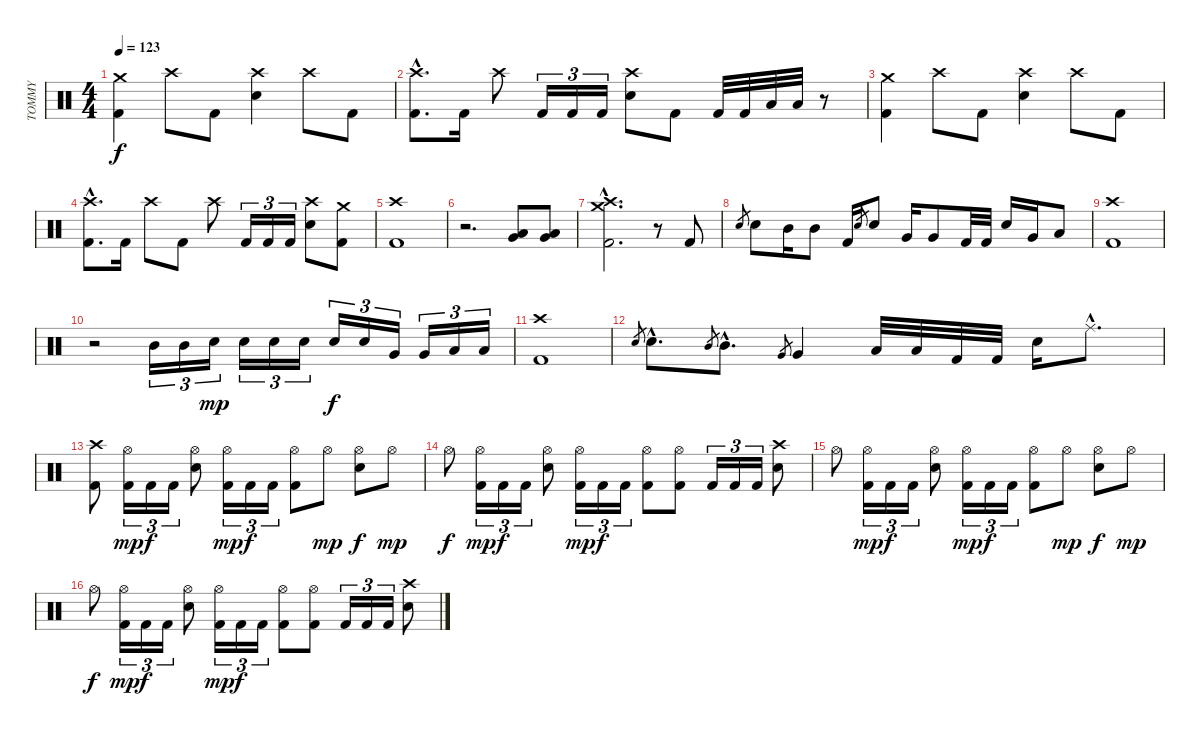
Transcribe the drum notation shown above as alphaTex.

\track ("TOMMY" "TOMMY") {instrument percussion}
\staff {score}
\articulation defaults
\ts (4 4)
\tempo 123
\clef neutral
\ks c
("Kick (hit) 2" "Crash medium (hit)").4{dy f} "Crash high (hit)".8 "Kick (hit) 2".8 ("Snare (hit) 2" "Crash high (hit)").4 "Crash high (hit)".8 "Kick (hit) 2".8 |
("Kick (hit) 2"{hac} "Crash high (hit)"{hac}).8{d} "Kick (hit) 2".16 "Crash high (hit)".8 "Kick (hit) 2".16{tu (3 2)} "Kick (hit) 2".16{tu (3 2)} "Kick (hit) 2".16{tu (3 2)} ("Snare (hit) 2" "Crash high (hit)").8 "Kick (hit) 2".8 "Kick (hit) 2".32 "Kick (hit) 2".32 "Low Floor Tom (hit)".32 "Low Floor Tom (hit)".32 r.8 |
("Kick (hit) 2" "Crash medium (hit)").4 "Crash high (hit)".8 "Kick (hit) 2".8 ("Snare (hit) 2" "Crash high (hit)").4 "Crash high (hit)".8 "Kick (hit) 2".8 |
("Kick (hit) 2"{hac} "Crash high (hit)"{hac}).8{d} "Kick (hit) 2".16 "Crash high (hit)".8 "Kick (hit) 2".8 "Crash high (hit)".8 "Kick (hit) 2".16{tu (3 2)} "Kick (hit) 2".16{tu (3 2)} "Kick (hit) 2".16{tu (3 2)} ("Snare (hit) 2" "Crash high (hit)").8 ("Kick (hit) 2" "Crash medium (hit)").8 |
("Kick (hit) 2" "Crash high (hit)").1 |
r.2{d} ("Very Low Tom (hit)" "Low Floor Tom (hit)").8 ("Very Low Tom (hit)" "Low Floor Tom (hit)").8 |
("Kick (hit) 2"{hac} "Crash high (hit)"{hac} "Crash medium (hit)"{hac}).2{d} r.8 "Kick (hit) 2".8 |
"Snare (hit) 2".8{gr} "Snare (hit) 2".8 "Mid Tom (hit)".16 "Mid Tom (hit)".8 "Kick (hit) 2".16 "Snare (hit) 2".8{gr} "Snare (hit) 2".8 "Very Low Tom (hit)".16 "Very Low Tom (hit)".8 "Kick (hit) 2".32 "Kick (hit) 2".32 "Snare (hit) 2".16 "Very Low Tom (hit)".16 "Low Floor Tom (hit)".8 |
("Kick (hit) 2" "Crash high (hit)").1 |
r.2 "Mid Tom (hit)".16{tu (3 2)} "Mid Tom (hit)".16{tu (3 2)} "Snare (hit) 2".16{tu (3 2) dy mp} "Snare (hit) 2".16{tu (3 2)} "Snare (hit) 2".16{tu (3 2)} "Snare (hit) 2".16{tu (3 2)} "Snare (hit) 2".16{tu (3 2) dy f} "Snare (hit) 2".16{tu (3 2)} "Very Low Tom (hit)".16{tu (3 2)} "Very Low Tom (hit)".16{tu (3 2)} "Low Floor Tom (hit)".16{tu (3 2)} "Low Floor Tom (hit)".16{tu (3 2)} |
("Kick (hit) 2" "Crash high (hit)").1 |
"Snare (hit) 2".8{gr} "Snare (hit) 2"{hac}.8{d} "Mid Tom (hit)".8{gr} "Mid Tom (hit)"{hac}.8{d} "Very Low Tom (hit)".8{gr} "Very Low Tom (hit)".4 "Low Floor Tom (hit)".32 "Low Floor Tom (hit)".32 "Kick (hit) 2".32 "Kick (hit) 2".32 "Snare (hit) 2".16 "Ride (middle)"{hac}.8{d} |
("Kick (hit) 2" "Crash high (hit)").8 ("Kick (hit) 2" "Hi-Hat (open)").16{tu (3 2) dy mp} "Kick (hit) 2".16{tu (3 2) dy f} "Kick (hit) 2".16{tu (3 2)} ("Snare (hit) 2" "Hi-Hat (open)").8 ("Kick (hit) 2" "Hi-Hat (open)").16{tu (3 2) dy mp} "Kick (hit) 2".16{tu (3 2) dy f} "Kick (hit) 2".16{tu (3 2)} ("Kick (hit) 2" "Hi-Hat (open)").8 "Hi-Hat (open)".8{dy mp} ("Snare (hit) 2" "Hi-Hat (open)").8{dy f} "Hi-Hat (open)".8{dy mp} |
"Hi-Hat (open)".8{dy f} ("Kick (hit) 2" "Hi-Hat (open)").16{tu (3 2) dy mp} "Kick (hit) 2".16{tu (3 2) dy f} "Kick (hit) 2".16{tu (3 2)} ("Snare (hit) 2" "Hi-Hat (open)").8 ("Kick (hit) 2" "Hi-Hat (open)").16{tu (3 2) dy mp} "Kick (hit) 2".16{tu (3 2) dy f} "Kick (hit) 2".16{tu (3 2)} ("Kick (hit) 2" "Hi-Hat (open)").8 ("Kick (hit) 2" "Hi-Hat (open)").8 "Kick (hit) 2".16{tu (3 2)} "Kick (hit) 2".16{tu (3 2)} "Kick (hit) 2".16{tu (3 2)} ("Snare (hit) 2" "Crash high (hit)").8 |
"Hi-Hat (open)".8 ("Kick (hit) 2" "Hi-Hat (open)").16{tu (3 2) dy mp} "Kick (hit) 2".16{tu (3 2) dy f} "Kick (hit) 2".16{tu (3 2)} ("Snare (hit) 2" "Hi-Hat (open)").8 ("Kick (hit) 2" "Hi-Hat (open)").16{tu (3 2) dy mp} "Kick (hit) 2".16{tu (3 2) dy f} "Kick (hit) 2".16{tu (3 2)} ("Kick (hit) 2" "Hi-Hat (open)").8 "Hi-Hat (open)".8{dy mp} ("Snare (hit) 2" "Hi-Hat (open)").8{dy f} "Hi-Hat (open)".8{dy mp} |
"Hi-Hat (open)".8{dy f} ("Kick (hit) 2" "Hi-Hat (open)").16{tu (3 2) dy mp} "Kick (hit) 2".16{tu (3 2) dy f} "Kick (hit) 2".16{tu (3 2)} ("Snare (hit) 2" "Hi-Hat (open)").8 ("Kick (hit) 2" "Hi-Hat (open)").16{tu (3 2) dy mp} "Kick (hit) 2".16{tu (3 2) dy f} "Kick (hit) 2".16{tu (3 2)} ("Kick (hit) 2" "Hi-Hat (open)").8 ("Kick (hit) 2" "Hi-Hat (open)").8 "Kick (hit) 2".16{tu (3 2)} "Kick (hit) 2".16{tu (3 2)} "Kick (hit) 2".16{tu (3 2)} ("Snare (hit) 2" "Crash high (hit)").8
